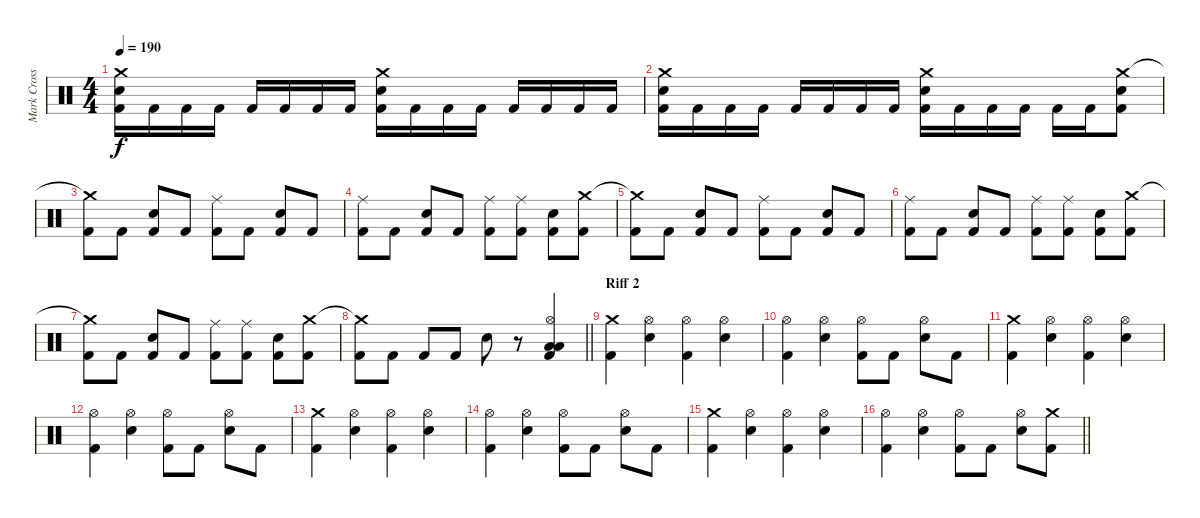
\track ("Mark Cross" "Mark Cross") {instrument percussion}
\staff {score}
\articulation defaults
\ts (4 4)
\tempo 190
\clef neutral
\ks c
("Crash medium (hit)" "Electric Snare (hit)" "Kick (hit) 2").16{dy f} "Kick (hit) 2".16 "Kick (hit) 2".16 "Kick (hit) 2".16 "Kick (hit) 2".16 "Kick (hit) 2".16 "Kick (hit) 2".16 "Kick (hit) 2".16 ("Crash medium (hit)" "Electric Snare (hit)" "Kick (hit) 2").16 "Kick (hit) 2".16 "Kick (hit) 2".16 "Kick (hit) 2".16 "Kick (hit) 2".16 "Kick (hit) 2".16 "Kick (hit) 2".16 "Kick (hit) 2".16 |
("Crash medium (hit)" "Electric Snare (hit)" "Kick (hit) 2").16 "Kick (hit) 2".16 "Kick (hit) 2".16 "Kick (hit) 2".16 "Kick (hit) 2".16 "Kick (hit) 2".16 "Kick (hit) 2".16 "Kick (hit) 2".16 ("Crash medium (hit)" "Electric Snare (hit)" "Kick (hit) 2").16 "Kick (hit) 2".16 "Kick (hit) 2".16 "Kick (hit) 2".16 "Kick (hit) 2".16 "Kick (hit) 2".16 ("Crash medium (hit)" "Electric Snare (hit)" "Kick (hit) 2").8 |
("Crash medium (hit)"{t} "Kick (hit) 2").8 "Kick (hit) 2".8 ("Electric Snare (hit)" "Kick (hit) 2").8 "Kick (hit) 2".8 ("Ride (middle)" "Kick (hit) 2").8 "Kick (hit) 2".8 ("Electric Snare (hit)" "Kick (hit) 2").8 "Kick (hit) 2".8 |
("Ride (middle)" "Kick (hit) 2").8 "Kick (hit) 2".8 ("Electric Snare (hit)" "Kick (hit) 2").8 "Kick (hit) 2".8 ("Ride (middle)" "Kick (hit) 2").8 ("Ride (middle)" "Kick (hit) 2").8 ("Electric Snare (hit)" "Kick (hit) 2").8 ("Crash medium (hit)" "Kick (hit) 2").8 |
("Crash medium (hit)"{t} "Kick (hit) 2").8 "Kick (hit) 2".8 ("Electric Snare (hit)" "Kick (hit) 2").8 "Kick (hit) 2".8 ("Ride (middle)" "Kick (hit) 2").8 "Kick (hit) 2".8 ("Electric Snare (hit)" "Kick (hit) 2").8 "Kick (hit) 2".8 |
("Ride (middle)" "Kick (hit) 2").8 "Kick (hit) 2".8 ("Electric Snare (hit)" "Kick (hit) 2").8 "Kick (hit) 2".8 ("Ride (middle)" "Kick (hit) 2").8 ("Ride (middle)" "Kick (hit) 2").8 ("Electric Snare (hit)" "Kick (hit) 2").8 ("Crash medium (hit)" "Kick (hit) 2").8 |
("Crash medium (hit)"{t} "Kick (hit) 2").8 "Kick (hit) 2".8 ("Electric Snare (hit)" "Kick (hit) 2").8 "Kick (hit) 2".8 ("Ride (middle)" "Kick (hit) 2").8 ("Ride (middle)" "Kick (hit) 2").8 ("Electric Snare (hit)" "Kick (hit) 2").8 ("Crash medium (hit)" "Kick (hit) 2").8 |
\barLineRight lightlight
("Crash medium (hit)"{t} "Kick (hit) 2").8 "Kick (hit) 2".8 "Kick (hit) 2".8 "Kick (hit) 2".8 "Electric Snare (hit)".8 r.8 ("Hi-Hat (open)" "Low Floor Tom (hit)" "Low Floor Tom (hit)" "Kick (hit) 2").4 |
\section ("" "Riff 2")
("Crash medium (hit)" "Kick (hit) 2").4 ("Hi-Hat (open)" "Electric Snare (hit)").4 ("Hi-Hat (open)" "Kick (hit) 2").4 ("Hi-Hat (open)" "Electric Snare (hit)").4 |
("Hi-Hat (open)" "Kick (hit) 2").4 ("Hi-Hat (open)" "Electric Snare (hit)").4 ("Hi-Hat (open)" "Kick (hit) 2").8 "Kick (hit) 2".8 ("Hi-Hat (open)" "Electric Snare (hit)").8 "Kick (hit) 2".8 |
("Crash medium (hit)" "Kick (hit) 2").4 ("Hi-Hat (open)" "Electric Snare (hit)").4 ("Hi-Hat (open)" "Kick (hit) 2").4 ("Hi-Hat (open)" "Electric Snare (hit)").4 |
("Hi-Hat (open)" "Kick (hit) 2").4 ("Hi-Hat (open)" "Electric Snare (hit)").4 ("Hi-Hat (open)" "Kick (hit) 2").8 "Kick (hit) 2".8 ("Hi-Hat (open)" "Electric Snare (hit)").8 "Kick (hit) 2".8 |
("Crash medium (hit)" "Kick (hit) 2").4 ("Hi-Hat (open)" "Electric Snare (hit)").4 ("Hi-Hat (open)" "Kick (hit) 2").4 ("Hi-Hat (open)" "Electric Snare (hit)").4 |
("Hi-Hat (open)" "Kick (hit) 2").4 ("Hi-Hat (open)" "Electric Snare (hit)").4 ("Hi-Hat (open)" "Kick (hit) 2").8 "Kick (hit) 2".8 ("Hi-Hat (open)" "Electric Snare (hit)").8 "Kick (hit) 2".8 |
("Crash medium (hit)" "Kick (hit) 2").4 ("Hi-Hat (open)" "Electric Snare (hit)").4 ("Hi-Hat (open)" "Kick (hit) 2").4 ("Hi-Hat (open)" "Electric Snare (hit)").4 |
\barLineRight lightlight
("Hi-Hat (open)" "Kick (hit) 2").4 ("Hi-Hat (open)" "Electric Snare (hit)").4 ("Hi-Hat (open)" "Kick (hit) 2").8 "Kick (hit) 2".8 ("Hi-Hat (open)" "Electric Snare (hit)").8 ("Crash medium (hit)" "Kick (hit) 2").8
